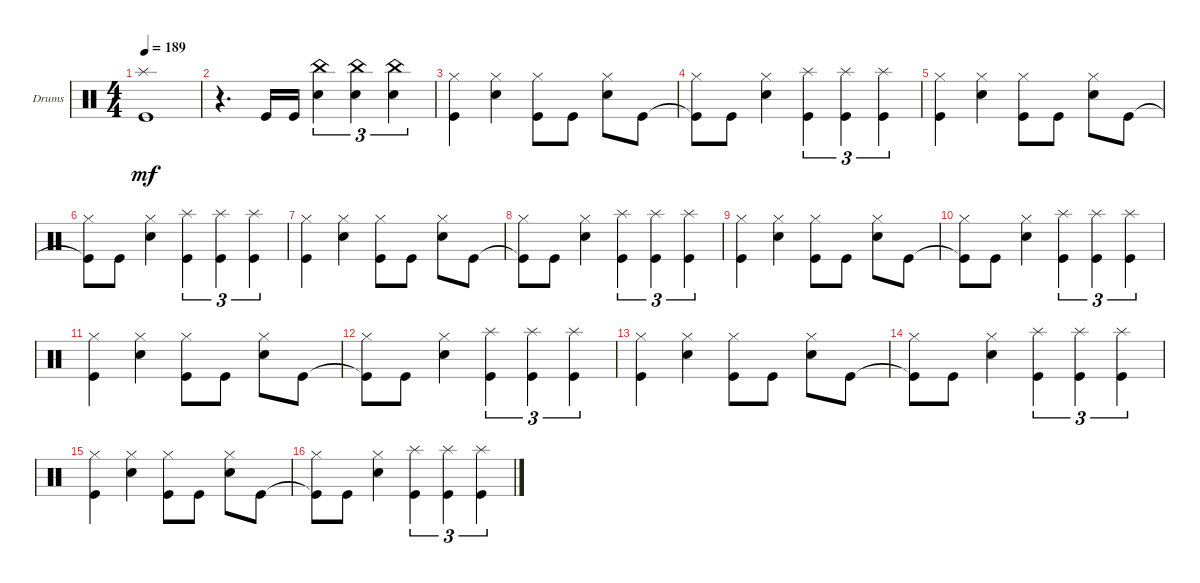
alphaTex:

\defaultSystemsLayout 4
\bracketExtendMode groupsimilarinstruments
\firstSystemTrackNameOrientation horizontal
\otherSystemsTrackNameOrientation horizontal
\track ("Drumkit" "Drums") {instrument percussion}
\staff {score}
\articulation defaults
\ts (4 4)
\tempo 189
\clef neutral
\ks c
("Kick (hit)" "Splash (hit)").1{dy mf} |
r.4{d} "Kick (hit)".16 "Kick (hit)".16 ("Snare (hit) 2" "China (hit)").4{tu (3 2)} ("Snare (hit) 2" "China (hit)").4{tu (3 2)} ("Snare (hit) 2" "China (hit)").4{tu (3 2)} |
("Kick (hit)" "Hi-Hat (closed)").4 ("Snare (hit) 2" "Hi-Hat (closed)").4 ("Kick (hit)" "Hi-Hat (closed)").8 "Kick (hit)".8 ("Snare (hit) 2" "Hi-Hat (closed)").8 "Kick (hit)".8 |
("Kick (hit)"{t} "Hi-Hat (closed)").8 "Kick (hit)".8 ("Snare (hit) 2" "Hi-Hat (closed)").4 ("Kick (hit)" "Splash (hit)").4{tu (3 2)} ("Kick (hit)" "Splash (hit)").4{tu (3 2)} ("Kick (hit)" "Splash (hit)").4{tu (3 2)} |
("Kick (hit)" "Hi-Hat (closed)").4 ("Snare (hit) 2" "Hi-Hat (closed)").4 ("Kick (hit)" "Hi-Hat (closed)").8 "Kick (hit)".8 ("Snare (hit) 2" "Hi-Hat (closed)").8 "Kick (hit)".8 |
("Kick (hit)"{t} "Hi-Hat (closed)").8 "Kick (hit)".8 ("Snare (hit) 2" "Hi-Hat (closed)").4 ("Kick (hit)" "Splash (hit)").4{tu (3 2)} ("Kick (hit)" "Splash (hit)").4{tu (3 2)} ("Kick (hit)" "Splash (hit)").4{tu (3 2)} |
("Kick (hit)" "Hi-Hat (closed)").4 ("Snare (hit) 2" "Hi-Hat (closed)").4 ("Kick (hit)" "Hi-Hat (closed)").8 "Kick (hit)".8 ("Snare (hit) 2" "Hi-Hat (closed)").8 "Kick (hit)".8 |
("Kick (hit)"{t} "Hi-Hat (closed)").8 "Kick (hit)".8 ("Snare (hit) 2" "Hi-Hat (closed)").4 ("Kick (hit)" "Splash (hit)").4{tu (3 2)} ("Kick (hit)" "Splash (hit)").4{tu (3 2)} ("Kick (hit)" "Splash (hit)").4{tu (3 2)} |
("Kick (hit)" "Hi-Hat (closed)").4 ("Snare (hit) 2" "Hi-Hat (closed)").4 ("Kick (hit)" "Hi-Hat (closed)").8 "Kick (hit)".8 ("Snare (hit) 2" "Hi-Hat (closed)").8 "Kick (hit)".8 |
("Kick (hit)"{t} "Hi-Hat (closed)").8 "Kick (hit)".8 ("Snare (hit) 2" "Hi-Hat (closed)").4 ("Kick (hit)" "Splash (hit)").4{tu (3 2)} ("Kick (hit)" "Splash (hit)").4{tu (3 2)} ("Kick (hit)" "Splash (hit)").4{tu (3 2)} |
("Kick (hit)" "Hi-Hat (closed)").4 ("Snare (hit) 2" "Hi-Hat (closed)").4 ("Kick (hit)" "Hi-Hat (closed)").8 "Kick (hit)".8 ("Snare (hit) 2" "Hi-Hat (closed)").8 "Kick (hit)".8 |
("Kick (hit)"{t} "Hi-Hat (closed)").8 "Kick (hit)".8 ("Snare (hit) 2" "Hi-Hat (closed)").4 ("Kick (hit)" "Splash (hit)").4{tu (3 2)} ("Kick (hit)" "Splash (hit)").4{tu (3 2)} ("Kick (hit)" "Splash (hit)").4{tu (3 2)} |
("Kick (hit)" "Hi-Hat (closed)").4 ("Snare (hit) 2" "Hi-Hat (closed)").4 ("Kick (hit)" "Hi-Hat (closed)").8 "Kick (hit)".8 ("Snare (hit) 2" "Hi-Hat (closed)").8 "Kick (hit)".8 |
("Kick (hit)"{t} "Hi-Hat (closed)").8 "Kick (hit)".8 ("Snare (hit) 2" "Hi-Hat (closed)").4 ("Kick (hit)" "Splash (hit)").4{tu (3 2)} ("Kick (hit)" "Splash (hit)").4{tu (3 2)} ("Kick (hit)" "Splash (hit)").4{tu (3 2)} |
("Kick (hit)" "Hi-Hat (closed)").4 ("Snare (hit) 2" "Hi-Hat (closed)").4 ("Kick (hit)" "Hi-Hat (closed)").8 "Kick (hit)".8 ("Snare (hit) 2" "Hi-Hat (closed)").8 "Kick (hit)".8 |
("Kick (hit)"{t} "Hi-Hat (closed)").8 "Kick (hit)".8 ("Snare (hit) 2" "Hi-Hat (closed)").4 ("Kick (hit)" "Splash (hit)").4{tu (3 2)} ("Kick (hit)" "Splash (hit)").4{tu (3 2)} ("Kick (hit)" "Splash (hit)").4{tu (3 2)}
